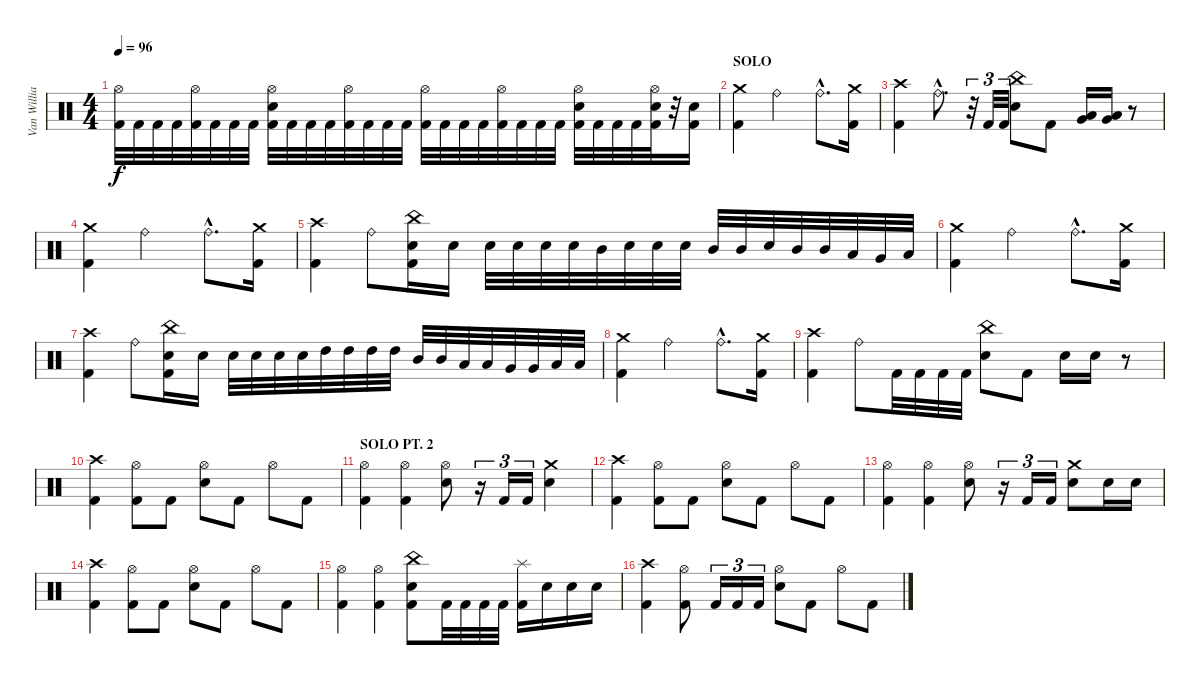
\track ("Van Williams" "Van Willia") {instrument percussion}
\staff {score}
\articulation defaults
\ts (4 4)
\tempo 96
\clef neutral
\ks c
("Hi-Hat (open)" "Kick (hit) 2").32{dy f} "Kick (hit) 2".32 "Kick (hit) 2".32 "Kick (hit) 2".32 ("Hi-Hat (open)" "Kick (hit) 2").32 "Kick (hit) 2".32 "Kick (hit) 2".32 "Kick (hit) 2".32 ("Hi-Hat (open)" "Electric Snare (hit)" "Kick (hit) 2").32 "Kick (hit) 2".32 "Kick (hit) 2".32 "Kick (hit) 2".32 ("Hi-Hat (open)" "Kick (hit) 2").32 "Kick (hit) 2".32 "Kick (hit) 2".32 "Kick (hit) 2".32 ("Hi-Hat (open)" "Kick (hit) 2").32 "Kick (hit) 2".32 "Kick (hit) 2".32 "Kick (hit) 2".32 ("Hi-Hat (open)" "Kick (hit) 2").32 "Kick (hit) 2".32 "Kick (hit) 2".32 "Kick (hit) 2".32 ("Hi-Hat (open)" "Electric Snare (hit)" "Kick (hit) 2").32 "Kick (hit) 2".32 "Kick (hit) 2".32 "Kick (hit) 2".32 ("Hi-Hat (open)" "Electric Snare (hit)" "Kick (hit) 2").32 r.32 ("Electric Snare (hit)" "Kick (hit) 2").16 |
\section ("" "SOLO")
("Crash medium (hit)" "Kick (hit) 2").4 "Ride (bell)".2 "Ride (bell)"{hac}.8{d} ("Crash medium (hit)" "Kick (hit) 2").16 |
("Crash high (hit)" "Kick (hit) 2").4 "Ride (bell)"{hac}.8{d} r.32{tu (3 2)} "Kick (hit) 2".32{tu (3 2)} "Kick (hit) 2".32{tu (3 2)} ("China (hit)" "Electric Snare (hit)").8 "Kick (hit) 2".8 ("Very Low Tom (hit)" "Low Floor Tom (hit)").16 ("Very Low Tom (hit)" "Low Floor Tom (hit)").16 r.8 |
("Crash medium (hit)" "Kick (hit) 2").4 "Ride (bell)".2 "Ride (bell)"{hac}.8{d} ("Crash medium (hit)" "Kick (hit) 2").16 |
("Crash high (hit)" "Kick (hit) 2").4 "Ride (bell)".8 ("China (hit)" "Electric Snare (hit)" "Kick (hit) 2").16 "Electric Snare (hit)".16 "Electric Snare (hit)".32 "Electric Snare (hit)".32 "Electric Snare (hit)".32 "Electric Snare (hit)".32 "Mid Tom (hit)".32 "Electric Snare (hit)".32 "Electric Snare (hit)".32 "Electric Snare (hit)".32 "Mid Tom (hit)".32 "Mid Tom (hit)".32 "Electric Snare (hit)".32 "Mid Tom (hit)".32 "Mid Tom (hit)".32 "Low Tom (hit)".32 "Very Low Tom (hit)".32 "Low Floor Tom (hit)".32 |
("Crash medium (hit)" "Kick (hit) 2").4 "Ride (bell)".2 "Ride (bell)"{hac}.8{d} ("Crash medium (hit)" "Kick (hit) 2").16 |
("Crash high (hit)" "Kick (hit) 2").4 "Ride (bell)".8 ("China (hit)" "Electric Snare (hit)" "Kick (hit) 2").16 "Electric Snare (hit)".16 "Electric Snare (hit)".32 "Electric Snare (hit)".32 "Electric Snare (hit)".32 "Electric Snare (hit)".32 "High Tom (hit)".32 "High Tom (hit)".32 "High Tom (hit)".32 "High Tom (hit)".32 "Mid Tom (hit)".32 "Mid Tom (hit)".32 "Low Tom (hit)".32 "Low Tom (hit)".32 "Very Low Tom (hit)".32 "Very Low Tom (hit)".32 "Low Floor Tom (hit)".32 "Low Floor Tom (hit)".32 |
("Crash medium (hit)" "Kick (hit) 2").4 "Ride (bell)".2 "Ride (bell)"{hac}.8{d} ("Crash medium (hit)" "Kick (hit) 2").16 |
("Crash high (hit)" "Kick (hit) 2").4 "Ride (bell)".8 "Kick (hit) 2".32 "Kick (hit) 2".32 "Kick (hit) 2".32 "Kick (hit) 2".32 ("China (hit)" "Electric Snare (hit)").8 "Kick (hit) 2".8 "Electric Snare (hit)".16 "Electric Snare (hit)".16 r.8 |
("Crash high (hit)" "Kick (hit) 2").4 ("Hi-Hat (open)" "Kick (hit) 2").8 "Kick (hit) 2".8 ("Hi-Hat (open)" "Electric Snare (hit)").8 "Kick (hit) 2".8 "Hi-Hat (open)".8 "Kick (hit) 2".8 |
\section ("" "SOLO PT. 2")
("Hi-Hat (open)" "Kick (hit) 2").4 ("Hi-Hat (open)" "Kick (hit) 2").4 ("Hi-Hat (open)" "Electric Snare (hit)").8 r.16{tu (3 2)} "Kick (hit) 2".16{tu (3 2)} "Kick (hit) 2".16{tu (3 2)} ("Crash medium (hit)" "Electric Snare (hit)").4 |
("Crash high (hit)" "Kick (hit) 2").4 ("Hi-Hat (open)" "Kick (hit) 2").8 "Kick (hit) 2".8 ("Hi-Hat (open)" "Electric Snare (hit)").8 "Kick (hit) 2".8 "Hi-Hat (open)".8 "Kick (hit) 2".8 |
("Hi-Hat (open)" "Kick (hit) 2").4 ("Hi-Hat (open)" "Kick (hit) 2").4 ("Hi-Hat (open)" "Electric Snare (hit)").8 r.16{tu (3 2)} "Kick (hit) 2".16{tu (3 2)} "Kick (hit) 2".16{tu (3 2)} ("Crash medium (hit)" "Electric Snare (hit)").8 "Electric Snare (hit)".16 "Electric Snare (hit)".16 |
("Crash high (hit)" "Kick (hit) 2").4 ("Hi-Hat (open)" "Kick (hit) 2").8 "Kick (hit) 2".8 ("Hi-Hat (open)" "Electric Snare (hit)").8 "Kick (hit) 2".8 "Hi-Hat (open)".8 "Kick (hit) 2".8 |
("Hi-Hat (open)" "Kick (hit) 2").4 ("Hi-Hat (open)" "Kick (hit) 2").4 ("China (hit)" "Electric Snare (hit)" "Kick (hit) 2").8 "Kick (hit) 2".32 "Kick (hit) 2".32 "Kick (hit) 2".32 "Kick (hit) 2".32 ("Splash (hit)" "Kick (hit) 2").16 "Electric Snare (hit)".16 "Electric Snare (hit)".16 "Electric Snare (hit)".16 |
("Crash high (hit)" "Kick (hit) 2").4 ("Hi-Hat (open)" "Kick (hit) 2").8 "Kick (hit) 2".16{tu (3 2)} "Kick (hit) 2".16{tu (3 2)} "Kick (hit) 2".16{tu (3 2)} ("Hi-Hat (open)" "Electric Snare (hit)").8 "Kick (hit) 2".8 "Hi-Hat (open)".8 "Kick (hit) 2".8
